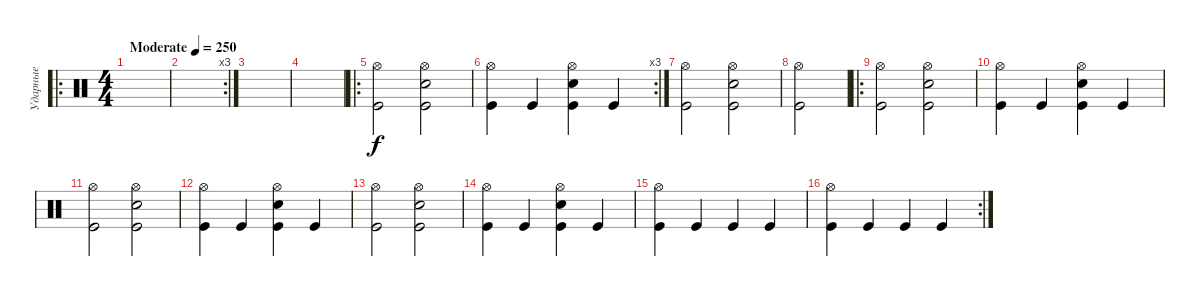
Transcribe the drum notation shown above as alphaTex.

\track ("Ударные" "Ударные") {instrument percussion}
\staff {score}
\articulation defaults
\ro
\ts (4 4)
\tempo (250 "Moderate")
\clef neutral
\ks c
|
\rc 3
|
|
|
\ro
("Hi-Hat (open)" "Kick (hit)").2 ("Hi-Hat (open)" "Snare (hit) 2" "Kick (hit)").2 |
\rc 3
("Hi-Hat (open)" "Kick (hit)").4 "Kick (hit)".4 ("Hi-Hat (open)" "Snare (hit) 2" "Kick (hit)").4 "Kick (hit)".4 |
("Hi-Hat (open)" "Kick (hit)").2 ("Hi-Hat (open)" "Kick (hit)" "Snare (hit) 2").2 |
("Hi-Hat (open)" "Kick (hit)").2 |
\ro
("Hi-Hat (open)" "Kick (hit)").2 ("Hi-Hat (open)" "Snare (hit) 2" "Kick (hit)").2 |
("Hi-Hat (open)" "Kick (hit)").4 "Kick (hit)".4 ("Hi-Hat (open)" "Snare (hit) 2" "Kick (hit)").4 "Kick (hit)".4 |
("Hi-Hat (open)" "Kick (hit)").2 ("Hi-Hat (open)" "Snare (hit) 2" "Kick (hit)").2 |
("Hi-Hat (open)" "Kick (hit)").4 "Kick (hit)".4 ("Hi-Hat (open)" "Snare (hit) 2" "Kick (hit)").4 "Kick (hit)".4 |
("Hi-Hat (open)" "Kick (hit)").2 ("Hi-Hat (open)" "Snare (hit) 2" "Kick (hit)").2 |
("Hi-Hat (open)" "Kick (hit)").4 "Kick (hit)".4 ("Hi-Hat (open)" "Snare (hit) 2" "Kick (hit)").4 "Kick (hit)".4 |
("Hi-Hat (open)" "Kick (hit)").4 "Kick (hit)".4 "Kick (hit)".4 "Kick (hit)".4 |
\rc 2
("Hi-Hat (open)" "Kick (hit)").4 "Kick (hit)".4 "Kick (hit)".4 "Kick (hit)".4
